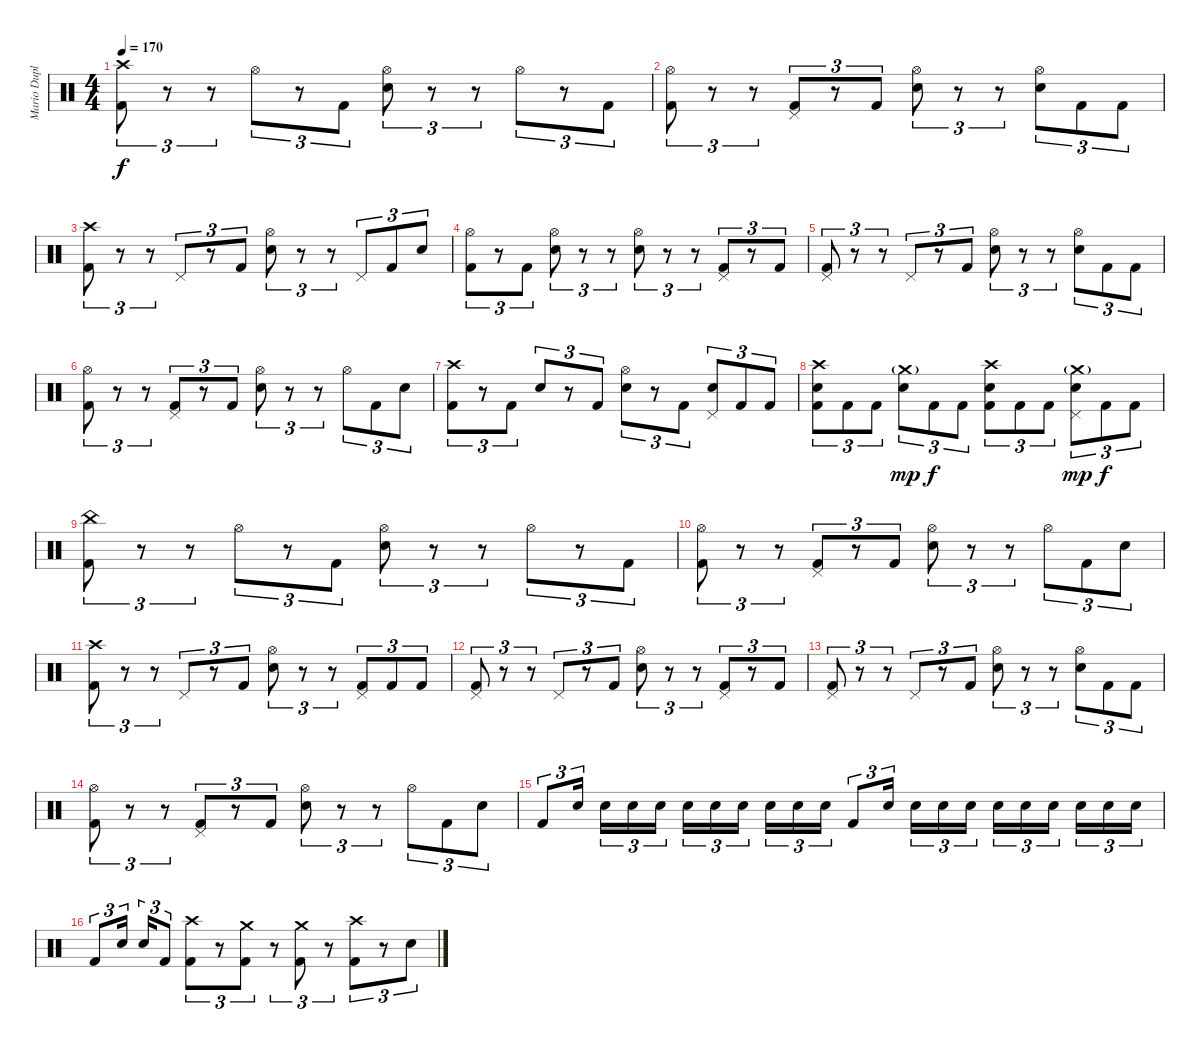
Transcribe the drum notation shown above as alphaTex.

\track ("Mario Duplantier" "Mario Dupl") {instrument percussion}
\staff {score}
\articulation defaults
\ts (4 4)
\tempo 170
\clef neutral
\ks c
("Crash high (hit)" "Kick (hit) 2").8{tu (3 2) dy f} r.8{tu (3 2)} r.8{tu (3 2)} "Hi-Hat (open)".8{tu (3 2)} r.8{tu (3 2)} "Kick (hit) 2".8{tu (3 2)} ("Hi-Hat (open)" "Electric Snare (hit)").8{tu (3 2)} r.8{tu (3 2)} r.8{tu (3 2)} "Hi-Hat (open)".8{tu (3 2)} r.8{tu (3 2)} "Kick (hit) 2".8{tu (3 2)} |
("Hi-Hat (open)" "Kick (hit) 2").8{tu (3 2)} r.8{tu (3 2)} r.8{tu (3 2)} ("Pedal Hi-Hat (hit)" "Kick (hit) 2").8{tu (3 2)} r.8{tu (3 2)} "Kick (hit) 2".8{tu (3 2)} ("Hi-Hat (open)" "Electric Snare (hit)").8{tu (3 2)} r.8{tu (3 2)} r.8{tu (3 2)} ("Hi-Hat (open)" "Electric Snare (hit)").8{tu (3 2)} "Kick (hit) 2".8{tu (3 2)} "Kick (hit) 2".8{tu (3 2)} |
("Crash high (hit)" "Kick (hit) 2").8{tu (3 2)} r.8{tu (3 2)} r.8{tu (3 2)} "Pedal Hi-Hat (hit)".8{tu (3 2)} r.8{tu (3 2)} "Kick (hit) 2".8{tu (3 2)} ("Hi-Hat (open)" "Electric Snare (hit)").8{tu (3 2)} r.8{tu (3 2)} r.8{tu (3 2)} "Pedal Hi-Hat (hit)".8{tu (3 2)} "Kick (hit) 2".8{tu (3 2)} "Electric Snare (hit)".8{tu (3 2)} |
("Hi-Hat (open)" "Kick (hit) 2").8{tu (3 2)} r.8{tu (3 2)} "Kick (hit) 2".8{tu (3 2)} ("Hi-Hat (open)" "Electric Snare (hit)").8{tu (3 2)} r.8{tu (3 2)} r.8{tu (3 2)} ("Hi-Hat (open)" "Electric Snare (hit)").8{tu (3 2)} r.8{tu (3 2)} r.8{tu (3 2)} ("Pedal Hi-Hat (hit)" "Kick (hit) 2").8{tu (3 2)} r.8{tu (3 2)} "Kick (hit) 2".8{tu (3 2)} |
("Pedal Hi-Hat (hit)" "Kick (hit) 2").8{tu (3 2)} r.8{tu (3 2)} r.8{tu (3 2)} "Pedal Hi-Hat (hit)".8{tu (3 2)} r.8{tu (3 2)} "Kick (hit) 2".8{tu (3 2)} ("Hi-Hat (open)" "Electric Snare (hit)").8{tu (3 2)} r.8{tu (3 2)} r.8{tu (3 2)} ("Hi-Hat (open)" "Electric Snare (hit)").8{tu (3 2)} "Kick (hit) 2".8{tu (3 2)} "Kick (hit) 2".8{tu (3 2)} |
("Hi-Hat (open)" "Kick (hit) 2").8{tu (3 2)} r.8{tu (3 2)} r.8{tu (3 2)} ("Pedal Hi-Hat (hit)" "Kick (hit) 2").8{tu (3 2)} r.8{tu (3 2)} "Kick (hit) 2".8{tu (3 2)} ("Hi-Hat (open)" "Electric Snare (hit)").8{tu (3 2)} r.8{tu (3 2)} r.8{tu (3 2)} "Hi-Hat (open)".8{tu (3 2)} "Kick (hit) 2".8{tu (3 2)} "Electric Snare (hit)".8{tu (3 2)} |
("Crash high (hit)" "Kick (hit) 2").8{tu (3 2)} r.8{tu (3 2)} "Kick (hit) 2".8{tu (3 2)} "Electric Snare (hit)".8{tu (3 2)} r.8{tu (3 2)} "Kick (hit) 2".8{tu (3 2)} ("Hi-Hat (open)" "Electric Snare (hit)").8{tu (3 2)} r.8{tu (3 2)} "Kick (hit) 2".8{tu (3 2)} ("Pedal Hi-Hat (hit)" "Electric Snare (hit)").8{tu (3 2)} "Kick (hit) 2".8{tu (3 2)} "Kick (hit) 2".8{tu (3 2)} |
("Crash high (hit)" "Electric Snare (hit)" "Kick (hit) 2").8{tu (3 2)} "Kick (hit) 2".8{tu (3 2)} "Kick (hit) 2".8{tu (3 2)} ("Crash medium (hit)"{g} "Electric Snare (hit)").8{tu (3 2) dy mp} "Kick (hit) 2".8{tu (3 2) dy f} "Kick (hit) 2".8{tu (3 2)} ("Crash high (hit)" "Electric Snare (hit)" "Kick (hit) 2").8{tu (3 2)} "Kick (hit) 2".8{tu (3 2)} "Kick (hit) 2".8{tu (3 2)} ("Crash medium (hit)"{g} "Pedal Hi-Hat (hit)" "Electric Snare (hit)").8{tu (3 2) dy mp} "Kick (hit) 2".8{tu (3 2) dy f} "Kick (hit) 2".8{tu (3 2)} |
("China (hit)" "Kick (hit) 2").8{tu (3 2)} r.8{tu (3 2)} r.8{tu (3 2)} "Hi-Hat (open)".8{tu (3 2)} r.8{tu (3 2)} "Kick (hit) 2".8{tu (3 2)} ("Hi-Hat (open)" "Electric Snare (hit)").8{tu (3 2)} r.8{tu (3 2)} r.8{tu (3 2)} "Hi-Hat (open)".8{tu (3 2)} r.8{tu (3 2)} "Kick (hit) 2".8{tu (3 2)} |
("Hi-Hat (open)" "Kick (hit) 2").8{tu (3 2)} r.8{tu (3 2)} r.8{tu (3 2)} ("Pedal Hi-Hat (hit)" "Kick (hit) 2").8{tu (3 2)} r.8{tu (3 2)} "Kick (hit) 2".8{tu (3 2)} ("Hi-Hat (open)" "Electric Snare (hit)").8{tu (3 2)} r.8{tu (3 2)} r.8{tu (3 2)} "Hi-Hat (open)".8{tu (3 2)} "Kick (hit) 2".8{tu (3 2)} "Electric Snare (hit)".8{tu (3 2)} |
("Crash high (hit)" "Kick (hit) 2").8{tu (3 2)} r.8{tu (3 2)} r.8{tu (3 2)} "Pedal Hi-Hat (hit)".8{tu (3 2)} r.8{tu (3 2)} "Kick (hit) 2".8{tu (3 2)} ("Hi-Hat (open)" "Electric Snare (hit)").8{tu (3 2)} r.8{tu (3 2)} r.8{tu (3 2)} ("Pedal Hi-Hat (hit)" "Kick (hit) 2").8{tu (3 2)} "Kick (hit) 2".8{tu (3 2)} "Kick (hit) 2".8{tu (3 2)} |
("Pedal Hi-Hat (hit)" "Kick (hit) 2").8{tu (3 2)} r.8{tu (3 2)} r.8{tu (3 2)} "Pedal Hi-Hat (hit)".8{tu (3 2)} r.8{tu (3 2)} "Kick (hit) 2".8{tu (3 2)} ("Hi-Hat (open)" "Electric Snare (hit)").8{tu (3 2)} r.8{tu (3 2)} r.8{tu (3 2)} ("Pedal Hi-Hat (hit)" "Kick (hit) 2").8{tu (3 2)} r.8{tu (3 2)} "Kick (hit) 2".8{tu (3 2)} |
("Pedal Hi-Hat (hit)" "Kick (hit) 2").8{tu (3 2)} r.8{tu (3 2)} r.8{tu (3 2)} "Pedal Hi-Hat (hit)".8{tu (3 2)} r.8{tu (3 2)} "Kick (hit) 2".8{tu (3 2)} ("Hi-Hat (open)" "Electric Snare (hit)").8{tu (3 2)} r.8{tu (3 2)} r.8{tu (3 2)} ("Hi-Hat (open)" "Electric Snare (hit)").8{tu (3 2)} "Kick (hit) 2".8{tu (3 2)} "Kick (hit) 2".8{tu (3 2)} |
("Hi-Hat (open)" "Kick (hit) 2").8{tu (3 2)} r.8{tu (3 2)} r.8{tu (3 2)} ("Pedal Hi-Hat (hit)" "Kick (hit) 2").8{tu (3 2)} r.8{tu (3 2)} "Kick (hit) 2".8{tu (3 2)} ("Hi-Hat (open)" "Electric Snare (hit)").8{tu (3 2)} r.8{tu (3 2)} r.8{tu (3 2)} "Hi-Hat (open)".8{tu (3 2)} "Kick (hit) 2".8{tu (3 2)} "Electric Snare (hit)".8{tu (3 2)} |
"Kick (hit) 2".8{tu (3 2)} "Electric Snare (hit)".16{tu (3 2) beam splitsecondary} "Electric Snare (hit)".16{tu (3 2)} "Electric Snare (hit)".16{tu (3 2)} "Electric Snare (hit)".16{tu (3 2)} "Electric Snare (hit)".16{tu (3 2)} "Electric Snare (hit)".16{tu (3 2)} "Electric Snare (hit)".16{tu (3 2) beam splitsecondary} "Electric Snare (hit)".16{tu (3 2)} "Electric Snare (hit)".16{tu (3 2)} "Electric Snare (hit)".16{tu (3 2)} "Kick (hit) 2".8{tu (3 2)} "Electric Snare (hit)".16{tu (3 2) beam splitsecondary} "Electric Snare (hit)".16{tu (3 2)} "Electric Snare (hit)".16{tu (3 2)} "Electric Snare (hit)".16{tu (3 2)} "Electric Snare (hit)".16{tu (3 2)} "Electric Snare (hit)".16{tu (3 2)} "Electric Snare (hit)".16{tu (3 2) beam splitsecondary} "Electric Snare (hit)".16{tu (3 2)} "Electric Snare (hit)".16{tu (3 2)} "Electric Snare (hit)".16{tu (3 2)} |
"Kick (hit) 2".8{tu (3 2)} "Electric Snare (hit)".16{tu (3 2) beam splitsecondary} "Electric Snare (hit)".16{tu (3 2)} "Kick (hit) 2".8{tu (3 2)} ("Crash high (hit)" "Kick (hit) 2").8{tu (3 2)} r.8{tu (3 2)} ("Crash medium (hit)" "Kick (hit) 2").8{tu (3 2)} r.8{tu (3 2)} ("Crash medium (hit)" "Kick (hit) 2").8{tu (3 2)} r.8{tu (3 2)} ("Crash high (hit)" "Kick (hit) 2").8{tu (3 2)} r.8{tu (3 2)} "Electric Snare (hit)".8{tu (3 2)}
